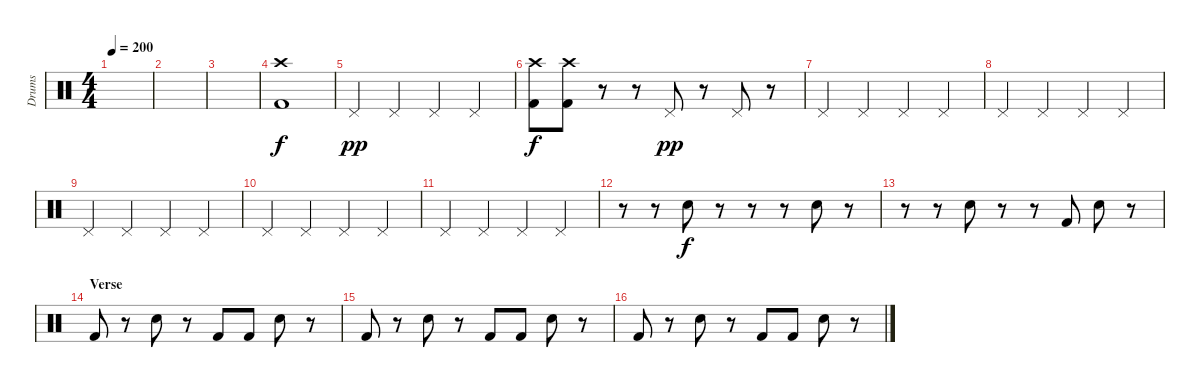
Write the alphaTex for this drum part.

\track ("Drums" "Drums") {instrument percussion}
\staff {score}
\articulation defaults
\ts (4 4)
\tempo 200
\clef neutral
\ks c
|
|
|
("Crash high (hit)" "Kick (hit) 2").1 |
"Pedal Hi-Hat (hit)".4{dy pp} "Pedal Hi-Hat (hit)".4 "Pedal Hi-Hat (hit)".4 "Pedal Hi-Hat (hit)".4 |
("Crash high (hit)" "Kick (hit) 2").8{dy f} ("Crash high (hit)" "Kick (hit) 2").8 r.8 r.8 "Pedal Hi-Hat (hit)".8{dy pp} r.8 "Pedal Hi-Hat (hit)".8 r.8 |
"Pedal Hi-Hat (hit)".4 "Pedal Hi-Hat (hit)".4 "Pedal Hi-Hat (hit)".4 "Pedal Hi-Hat (hit)".4 |
"Pedal Hi-Hat (hit)".4 "Pedal Hi-Hat (hit)".4 "Pedal Hi-Hat (hit)".4 "Pedal Hi-Hat (hit)".4 |
"Pedal Hi-Hat (hit)".4 "Pedal Hi-Hat (hit)".4 "Pedal Hi-Hat (hit)".4 "Pedal Hi-Hat (hit)".4 |
"Pedal Hi-Hat (hit)".4 "Pedal Hi-Hat (hit)".4 "Pedal Hi-Hat (hit)".4 "Pedal Hi-Hat (hit)".4 |
"Pedal Hi-Hat (hit)".4 "Pedal Hi-Hat (hit)".4 "Pedal Hi-Hat (hit)".4 "Pedal Hi-Hat (hit)".4 |
r.8 r.8 "Electric Snare (hit)".8{dy f} r.8 r.8 r.8 "Electric Snare (hit)".8 r.8 |
r.8 r.8 "Electric Snare (hit)".8 r.8 r.8 "Kick (hit) 2".8 "Electric Snare (hit)".8 r.8 |
\section ("" "Verse")
"Kick (hit) 2".8 r.8 "Electric Snare (hit)".8 r.8 "Kick (hit) 2".8 "Kick (hit) 2".8 "Electric Snare (hit)".8 r.8 |
"Kick (hit) 2".8 r.8 "Electric Snare (hit)".8 r.8 "Kick (hit) 2".8 "Kick (hit) 2".8 "Electric Snare (hit)".8 r.8 |
"Kick (hit) 2".8 r.8 "Electric Snare (hit)".8 r.8 "Kick (hit) 2".8 "Kick (hit) 2".8 "Electric Snare (hit)".8 r.8
